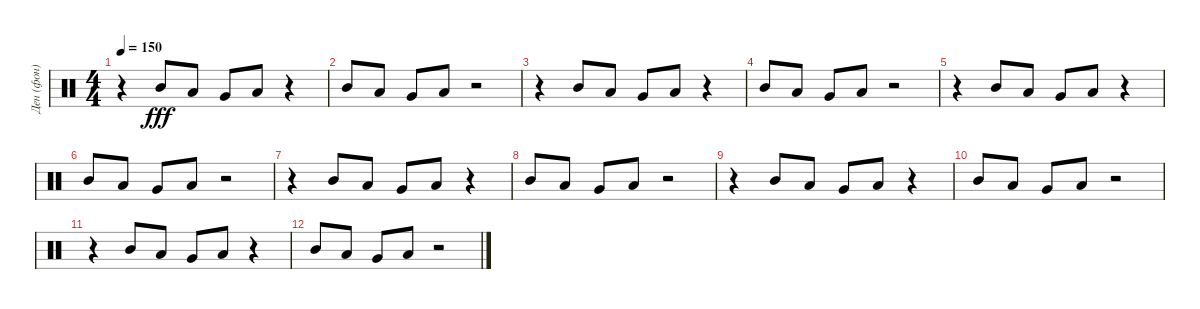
\track ("Ден (фон)" "Ден (фон)") {instrument percussion}
\staff {score}
\articulation defaults
\ts (4 4)
\tempo 150
\clef neutral
\ks c
r.4{dy fff} "Mid Tom (hit)".8 "Low Tom (hit)".8 "Very Low Tom (hit)".8 "Low Floor Tom (hit)".8 r.4 |
"Mid Tom (hit)".8 "Low Tom (hit)".8 "Very Low Tom (hit)".8 "Low Floor Tom (hit)".8 r.2 |
r.4 "Mid Tom (hit)".8 "Low Tom (hit)".8 "Very Low Tom (hit)".8 "Low Floor Tom (hit)".8 r.4 |
"Mid Tom (hit)".8 "Low Tom (hit)".8 "Very Low Tom (hit)".8 "Low Floor Tom (hit)".8 r.2 |
r.4 "Mid Tom (hit)".8 "Low Tom (hit)".8 "Very Low Tom (hit)".8 "Low Floor Tom (hit)".8 r.4 |
"Mid Tom (hit)".8 "Low Tom (hit)".8 "Very Low Tom (hit)".8 "Low Floor Tom (hit)".8 r.2 |
r.4 "Mid Tom (hit)".8 "Low Tom (hit)".8 "Very Low Tom (hit)".8 "Low Floor Tom (hit)".8 r.4 |
"Mid Tom (hit)".8 "Low Tom (hit)".8 "Very Low Tom (hit)".8 "Low Floor Tom (hit)".8 r.2 |
r.4 "Mid Tom (hit)".8 "Low Tom (hit)".8 "Very Low Tom (hit)".8 "Low Floor Tom (hit)".8 r.4 |
"Mid Tom (hit)".8 "Low Tom (hit)".8 "Very Low Tom (hit)".8 "Low Floor Tom (hit)".8 r.2 |
r.4 "Mid Tom (hit)".8 "Low Tom (hit)".8 "Very Low Tom (hit)".8 "Low Floor Tom (hit)".8 r.4 |
"Mid Tom (hit)".8 "Low Tom (hit)".8 "Very Low Tom (hit)".8 "Low Floor Tom (hit)".8 r.2
